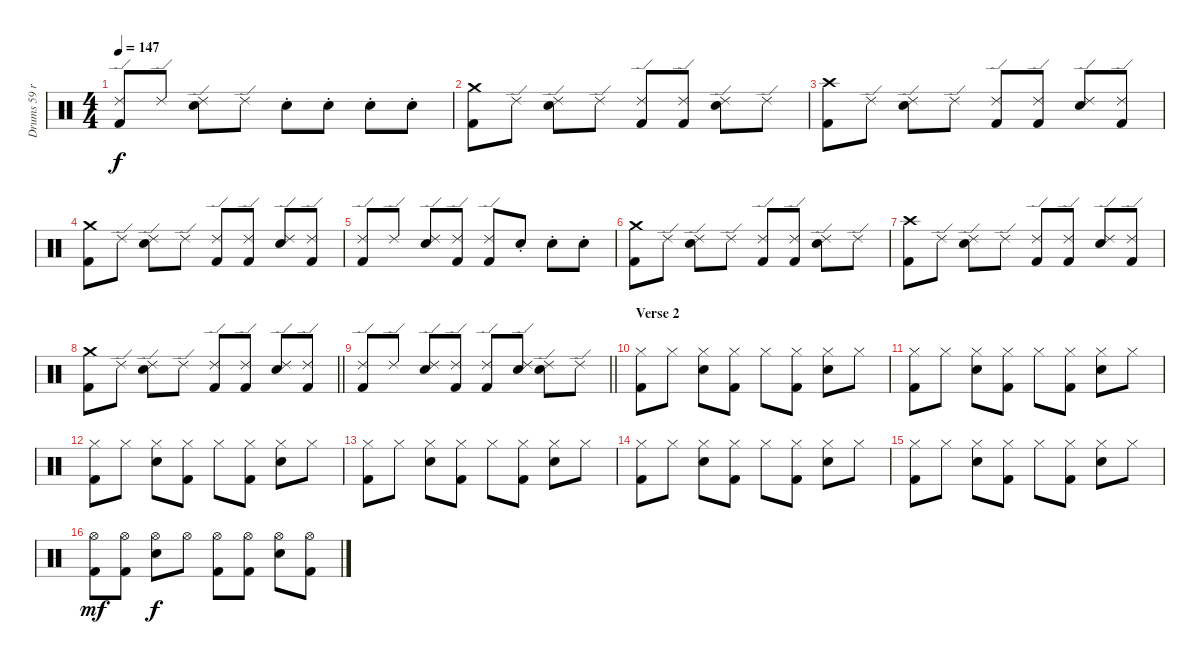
\track ("Drums 59 ride" "Drums 59 r") {mute instrument percussion}
\staff {score}
\articulation defaults
\ts (4 4)
\tempo 147
\clef neutral
\ks c
("Ride (edge) 2" "Kick (hit) 2").8{dy f} "Ride (edge) 2".8 ("Ride (edge) 2" "Snare (hit) 2").8 "Ride (edge) 2".8 "Snare (hit) 2"{st}.8 "Snare (hit) 2"{st}.8 "Snare (hit) 2"{st}.8 "Snare (hit) 2"{st}.8 |
("Crash medium (hit)" "Kick (hit) 2").8 "Ride (edge) 2".8 ("Ride (edge) 2" "Snare (hit) 2").8 "Ride (edge) 2".8 ("Ride (edge) 2" "Kick (hit) 2").8 ("Ride (edge) 2" "Kick (hit) 2").8 ("Ride (edge) 2" "Snare (hit) 2").8 "Ride (edge) 2".8 |
("Crash high (hit)" "Kick (hit) 2").8 "Ride (edge) 2".8 ("Ride (edge) 2" "Snare (hit) 2").8 "Ride (edge) 2".8 ("Ride (edge) 2" "Kick (hit) 2").8 ("Ride (edge) 2" "Kick (hit) 2").8 ("Ride (edge) 2" "Snare (hit) 2").8 ("Ride (edge) 2" "Kick (hit) 2").8 |
("Crash medium (hit)" "Kick (hit) 2").8 "Ride (edge) 2".8 ("Ride (edge) 2" "Snare (hit) 2").8 "Ride (edge) 2".8 ("Ride (edge) 2" "Kick (hit) 2").8 ("Ride (edge) 2" "Kick (hit) 2").8 ("Ride (edge) 2" "Snare (hit) 2").8 ("Ride (edge) 2" "Kick (hit) 2").8 |
("Ride (edge) 2" "Kick (hit) 2").8 "Ride (edge) 2".8 ("Ride (edge) 2" "Snare (hit) 2").8 ("Ride (edge) 2" "Kick (hit) 2").8 ("Ride (edge) 2" "Kick (hit) 2").8 "Snare (hit) 2"{st}.8 "Snare (hit) 2"{st}.8 "Snare (hit) 2"{st}.8 |
("Crash medium (hit)" "Kick (hit) 2").8 "Ride (edge) 2".8 ("Ride (edge) 2" "Snare (hit) 2").8 "Ride (edge) 2".8 ("Ride (edge) 2" "Kick (hit) 2").8 ("Ride (edge) 2" "Kick (hit) 2").8 ("Ride (edge) 2" "Snare (hit) 2").8 "Ride (edge) 2".8 |
("Crash high (hit)" "Kick (hit) 2").8 "Ride (edge) 2".8 ("Ride (edge) 2" "Snare (hit) 2").8 "Ride (edge) 2".8 ("Ride (edge) 2" "Kick (hit) 2").8 ("Ride (edge) 2" "Kick (hit) 2").8 ("Ride (edge) 2" "Snare (hit) 2").8 ("Ride (edge) 2" "Kick (hit) 2").8 |
\barLineRight lightlight
("Crash medium (hit)" "Kick (hit) 2").8 "Ride (edge) 2".8 ("Ride (edge) 2" "Snare (hit) 2").8 "Ride (edge) 2".8 ("Ride (edge) 2" "Kick (hit) 2").8 ("Ride (edge) 2" "Kick (hit) 2").8 ("Ride (edge) 2" "Snare (hit) 2").8 ("Ride (edge) 2" "Kick (hit) 2").8 |
\barLineRight lightlight
("Ride (edge) 2" "Kick (hit) 2").8 "Ride (edge) 2".8 ("Ride (edge) 2" "Snare (hit) 2").8 ("Ride (edge) 2" "Kick (hit) 2").8 ("Ride (edge) 2" "Kick (hit) 2").8 ("Ride (edge) 2" "Snare (hit) 2").8 ("Ride (edge) 2" "Snare (hit) 2").8 "Ride (edge) 2".8 |
\section ("" "Verse 2")
("Hi-Hat (closed)" "Kick (hit) 2").8 "Hi-Hat (closed)".8 ("Hi-Hat (closed)" "Snare (hit) 2").8 ("Hi-Hat (closed)" "Kick (hit) 2").8 "Hi-Hat (closed)".8 ("Hi-Hat (closed)" "Kick (hit) 2").8 ("Hi-Hat (closed)" "Snare (hit) 2").8 "Hi-Hat (closed)".8 |
("Hi-Hat (closed)" "Kick (hit) 2").8 "Hi-Hat (closed)".8 ("Hi-Hat (closed)" "Snare (hit) 2").8 ("Hi-Hat (closed)" "Kick (hit) 2").8 "Hi-Hat (closed)".8 ("Hi-Hat (closed)" "Kick (hit) 2").8 ("Hi-Hat (closed)" "Snare (hit) 2").8 "Hi-Hat (closed)".8 |
("Hi-Hat (closed)" "Kick (hit) 2").8 "Hi-Hat (closed)".8 ("Hi-Hat (closed)" "Snare (hit) 2").8 ("Hi-Hat (closed)" "Kick (hit) 2").8 "Hi-Hat (closed)".8 ("Hi-Hat (closed)" "Kick (hit) 2").8 ("Hi-Hat (closed)" "Snare (hit) 2").8 "Hi-Hat (closed)".8 |
("Hi-Hat (closed)" "Kick (hit) 2").8 "Hi-Hat (closed)".8 ("Hi-Hat (closed)" "Snare (hit) 2").8 ("Hi-Hat (closed)" "Kick (hit) 2").8 "Hi-Hat (closed)".8 ("Hi-Hat (closed)" "Kick (hit) 2").8 ("Hi-Hat (closed)" "Snare (hit) 2").8 "Hi-Hat (closed)".8 |
("Hi-Hat (closed)" "Kick (hit) 2").8 "Hi-Hat (closed)".8 ("Hi-Hat (closed)" "Snare (hit) 2").8 ("Hi-Hat (closed)" "Kick (hit) 2").8 "Hi-Hat (closed)".8 ("Hi-Hat (closed)" "Kick (hit) 2").8 ("Hi-Hat (closed)" "Snare (hit) 2").8 "Hi-Hat (closed)".8 |
("Hi-Hat (closed)" "Kick (hit) 2").8 "Hi-Hat (closed)".8 ("Hi-Hat (closed)" "Snare (hit) 2").8 ("Hi-Hat (closed)" "Kick (hit) 2").8 "Hi-Hat (closed)".8 ("Hi-Hat (closed)" "Kick (hit) 2").8 ("Hi-Hat (closed)" "Snare (hit) 2").8 "Hi-Hat (closed)".8 |
("Hi-Hat (open)" "Kick (hit) 2").8{dy mf} ("Hi-Hat (open)" "Kick (hit) 2").8 ("Hi-Hat (open)" "Snare (hit) 2").8{dy f} "Hi-Hat (open)".8 ("Hi-Hat (open)" "Kick (hit) 2").8 ("Hi-Hat (open)" "Kick (hit) 2").8 ("Hi-Hat (open)" "Snare (hit) 2").8 ("Hi-Hat (open)" "Kick (hit) 2").8
